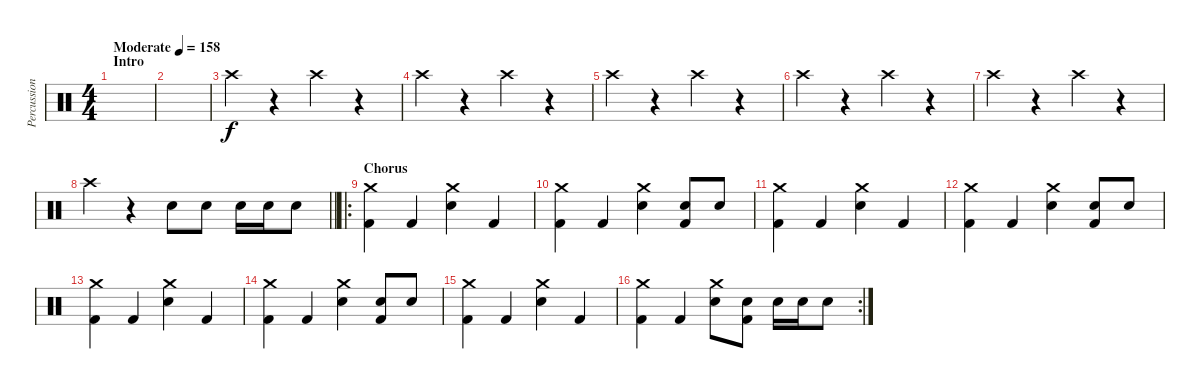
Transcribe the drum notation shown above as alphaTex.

\track ("Percussion" "Percussion") {instrument percussion}
\staff {score}
\articulation defaults
\ts (4 4)
\section ("" "Intro")
\tempo (158 "Moderate")
\clef neutral
\ks c
|
|
"Crash high (hit)".4 r.4 "Crash high (hit)".4 r.4 |
"Crash high (hit)".4 r.4 "Crash high (hit)".4 r.4 |
"Crash high (hit)".4 r.4 "Crash high (hit)".4 r.4 |
"Crash high (hit)".4 r.4 "Crash high (hit)".4 r.4 |
"Crash high (hit)".4 r.4 "Crash high (hit)".4 r.4 |
\barLineRight lightlight "Crash high (hit)".4
r.4 "Electric Snare (hit)".8 "Electric Snare (hit)".8 "Electric Snare (hit)".16 "Electric Snare (hit)".16 "Electric Snare (hit)".8 |
\ro
\section ("" "Chorus")
("Crash medium (hit)" "Kick (hit) 2").4 "Kick (hit) 2".4 ("Crash medium (hit)" "Electric Snare (hit)").4 "Kick (hit) 2".4 |
("Crash medium (hit)" "Kick (hit) 2").4 "Kick (hit) 2".4 ("Crash medium (hit)" "Electric Snare (hit)").4 ("Electric Snare (hit)" "Kick (hit) 2").8 "Electric Snare (hit)".8 |
("Crash medium (hit)" "Kick (hit) 2").4 "Kick (hit) 2".4 ("Crash medium (hit)" "Electric Snare (hit)").4 "Kick (hit) 2".4 |
("Crash medium (hit)" "Kick (hit) 2").4 "Kick (hit) 2".4 ("Crash medium (hit)" "Electric Snare (hit)").4 ("Electric Snare (hit)" "Kick (hit) 2").8 "Electric Snare (hit)".8 |
("Crash medium (hit)" "Kick (hit) 2").4 "Kick (hit) 2".4 ("Crash medium (hit)" "Electric Snare (hit)").4 "Kick (hit) 2".4 |
("Crash medium (hit)" "Kick (hit) 2").4 "Kick (hit) 2".4 ("Crash medium (hit)" "Electric Snare (hit)").4 ("Electric Snare (hit)" "Kick (hit) 2").8 "Electric Snare (hit)".8 |
("Crash medium (hit)" "Kick (hit) 2").4 "Kick (hit) 2".4 ("Crash medium (hit)" "Electric Snare (hit)").4 "Kick (hit) 2".4 |
\rc 2
("Crash medium (hit)" "Kick (hit) 2").4 "Kick (hit) 2".4 ("Crash medium (hit)" "Electric Snare (hit)").8 ("Electric Snare (hit)" "Kick (hit) 2").8 "Electric Snare (hit)".16 "Electric Snare (hit)".16 "Electric Snare (hit)".8
